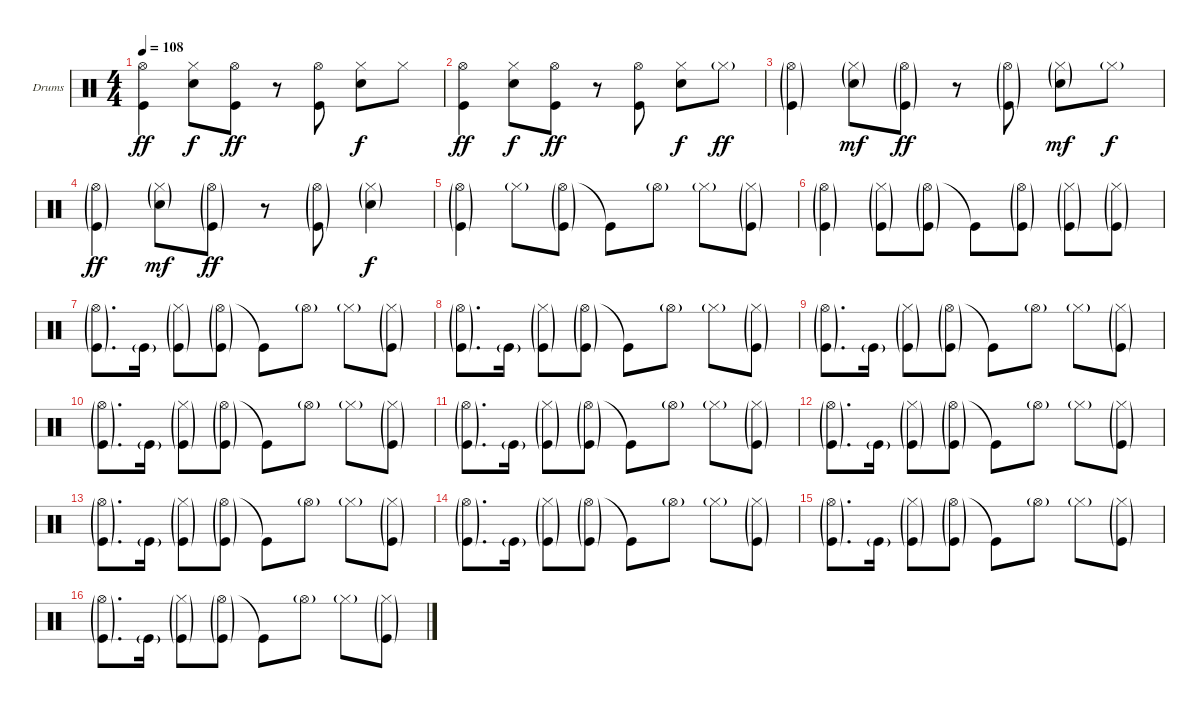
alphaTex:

\bracketExtendMode groupsimilarinstruments
\firstSystemTrackNameOrientation horizontal
\otherSystemsTrackNameOrientation horizontal
\track ("Drumkit" "Drums") {instrument percussion}
\staff {score}
\articulation defaults
\ts (4 4)
\tempo 108
\clef neutral
\ks c
("Hi-Hat (open)" "Kick (hit)").4{dy ff} ("Hi-Hat (closed)" "Snare (hit) 2").8{dy f} ("Hi-Hat (open)" "Kick (hit)").8{dy ff} r.8 ("Hi-Hat (open)" "Kick (hit)").8 ("Hi-Hat (closed)" "Snare (hit) 2").8{dy f} "Hi-Hat (closed)".8 |
("Hi-Hat (open)" "Kick (hit)").4{dy ff} ("Hi-Hat (closed)" "Snare (hit) 2").8{dy f} ("Hi-Hat (open)" "Kick (hit)").8{dy ff} r.8 ("Hi-Hat (open)" "Kick (hit)").8 ("Hi-Hat (closed)" "Snare (hit) 2").8{dy f} "Hi-Hat (closed)"{g}.8{dy ff} |
("Hi-Hat (open)"{g} "Kick (hit)"{g}).4 ("Hi-Hat (closed)"{g} "Snare (hit) 2"{g}).8{dy mf} ("Hi-Hat (open)"{g} "Kick (hit)"{g}).8{dy ff} r.8 ("Hi-Hat (open)"{g} "Kick (hit)"{g}).8 ("Hi-Hat (closed)"{g} "Snare (hit) 2"{g}).8{dy mf} "Hi-Hat (closed)"{g}.8{dy f} |
("Hi-Hat (open)"{g} "Kick (hit)"{g}).4{dy ff} ("Hi-Hat (closed)"{g} "Snare (hit) 2"{g}).8{dy mf} ("Hi-Hat (open)"{g} "Kick (hit)"{g}).8{dy ff} r.8 ("Hi-Hat (open)"{g} "Kick (hit)"{g}).8 ("Hi-Hat (closed)"{g} "Snare (hit) 2"{g}).4{dy f} |
("Hi-Hat (open)"{g} "Kick (hit)"{g}).4 "Hi-Hat (closed)"{g}.8 ("Hi-Hat (open)"{g} "Kick (hit)"{g}).8 "Kick (hit)"{t}.8 "Hi-Hat (open)"{g}.8 "Hi-Hat (closed)"{g}.8 ("Hi-Hat (closed)"{g} "Kick (hit)"{g}).8 |
("Hi-Hat (open)"{g} "Kick (hit)"{g}).4 ("Hi-Hat (closed)"{g} "Kick (hit)"{g}).8 ("Hi-Hat (open)"{g} "Kick (hit)"{g}).8 "Kick (hit)"{t}.8 ("Hi-Hat (open)"{g} "Kick (hit)"{g}).8 ("Hi-Hat (closed)"{g} "Kick (hit)"{g}).8 ("Hi-Hat (closed)"{g} "Kick (hit)"{g}).8 |
("Hi-Hat (open)"{g} "Kick (hit)"{g}).8{d} "Kick (hit)"{g}.16 ("Hi-Hat (closed)"{g} "Kick (hit)"{g}).8 ("Hi-Hat (open)"{g} "Kick (hit)"{g}).8 "Kick (hit)"{t}.8 "Hi-Hat (open)"{g}.8 "Hi-Hat (closed)"{g}.8 ("Hi-Hat (closed)"{g} "Kick (hit)"{g}).8 |
("Hi-Hat (open)"{g} "Kick (hit)"{g}).8{d} "Kick (hit)"{g}.16 ("Hi-Hat (closed)"{g} "Kick (hit)"{g}).8 ("Hi-Hat (open)"{g} "Kick (hit)"{g}).8 "Kick (hit)"{t}.8 "Hi-Hat (open)"{g}.8 "Hi-Hat (closed)"{g}.8 ("Hi-Hat (closed)"{g} "Kick (hit)"{g}).8 |
("Hi-Hat (open)"{g} "Kick (hit)"{g}).8{d} "Kick (hit)"{g}.16 ("Hi-Hat (closed)"{g} "Kick (hit)"{g}).8 ("Hi-Hat (open)"{g} "Kick (hit)"{g}).8 "Kick (hit)"{t}.8 "Hi-Hat (open)"{g}.8 "Hi-Hat (closed)"{g}.8 ("Hi-Hat (closed)"{g} "Kick (hit)"{g}).8 |
("Hi-Hat (open)"{g} "Kick (hit)"{g}).8{d} "Kick (hit)"{g}.16 ("Hi-Hat (closed)"{g} "Kick (hit)"{g}).8 ("Hi-Hat (open)"{g} "Kick (hit)"{g}).8 "Kick (hit)"{t}.8 "Hi-Hat (open)"{g}.8 "Hi-Hat (closed)"{g}.8 ("Hi-Hat (closed)"{g} "Kick (hit)"{g}).8 |
("Hi-Hat (open)"{g} "Kick (hit)"{g}).8{d} "Kick (hit)"{g}.16 ("Hi-Hat (closed)"{g} "Kick (hit)"{g}).8 ("Hi-Hat (open)"{g} "Kick (hit)"{g}).8 "Kick (hit)"{t}.8 "Hi-Hat (open)"{g}.8 "Hi-Hat (closed)"{g}.8 ("Hi-Hat (closed)"{g} "Kick (hit)"{g}).8 |
("Hi-Hat (open)"{g} "Kick (hit)"{g}).8{d} "Kick (hit)"{g}.16 ("Hi-Hat (closed)"{g} "Kick (hit)"{g}).8 ("Hi-Hat (open)"{g} "Kick (hit)"{g}).8 "Kick (hit)"{t}.8 "Hi-Hat (open)"{g}.8 "Hi-Hat (closed)"{g}.8 ("Hi-Hat (closed)"{g} "Kick (hit)"{g}).8 |
("Hi-Hat (open)"{g} "Kick (hit)"{g}).8{d} "Kick (hit)"{g}.16 ("Hi-Hat (closed)"{g} "Kick (hit)"{g}).8 ("Hi-Hat (open)"{g} "Kick (hit)"{g}).8 "Kick (hit)"{t}.8 "Hi-Hat (open)"{g}.8 "Hi-Hat (closed)"{g}.8 ("Hi-Hat (closed)"{g} "Kick (hit)"{g}).8 |
("Hi-Hat (open)"{g} "Kick (hit)"{g}).8{d} "Kick (hit)"{g}.16 ("Hi-Hat (closed)"{g} "Kick (hit)"{g}).8 ("Hi-Hat (open)"{g} "Kick (hit)"{g}).8 "Kick (hit)"{t}.8 "Hi-Hat (open)"{g}.8 "Hi-Hat (closed)"{g}.8 ("Hi-Hat (closed)"{g} "Kick (hit)"{g}).8 |
("Hi-Hat (open)"{g} "Kick (hit)"{g}).8{d} "Kick (hit)"{g}.16 ("Hi-Hat (closed)"{g} "Kick (hit)"{g}).8 ("Hi-Hat (open)"{g} "Kick (hit)"{g}).8 "Kick (hit)"{t}.8 "Hi-Hat (open)"{g}.8 "Hi-Hat (closed)"{g}.8 ("Hi-Hat (closed)"{g} "Kick (hit)"{g}).8 |
("Hi-Hat (open)"{g} "Kick (hit)"{g}).8{d} "Kick (hit)"{g}.16 ("Hi-Hat (closed)"{g} "Kick (hit)"{g}).8 ("Hi-Hat (open)"{g} "Kick (hit)"{g}).8 "Kick (hit)"{t}.8 "Hi-Hat (open)"{g}.8 "Hi-Hat (closed)"{g}.8 ("Hi-Hat (closed)"{g} "Kick (hit)"{g}).8
